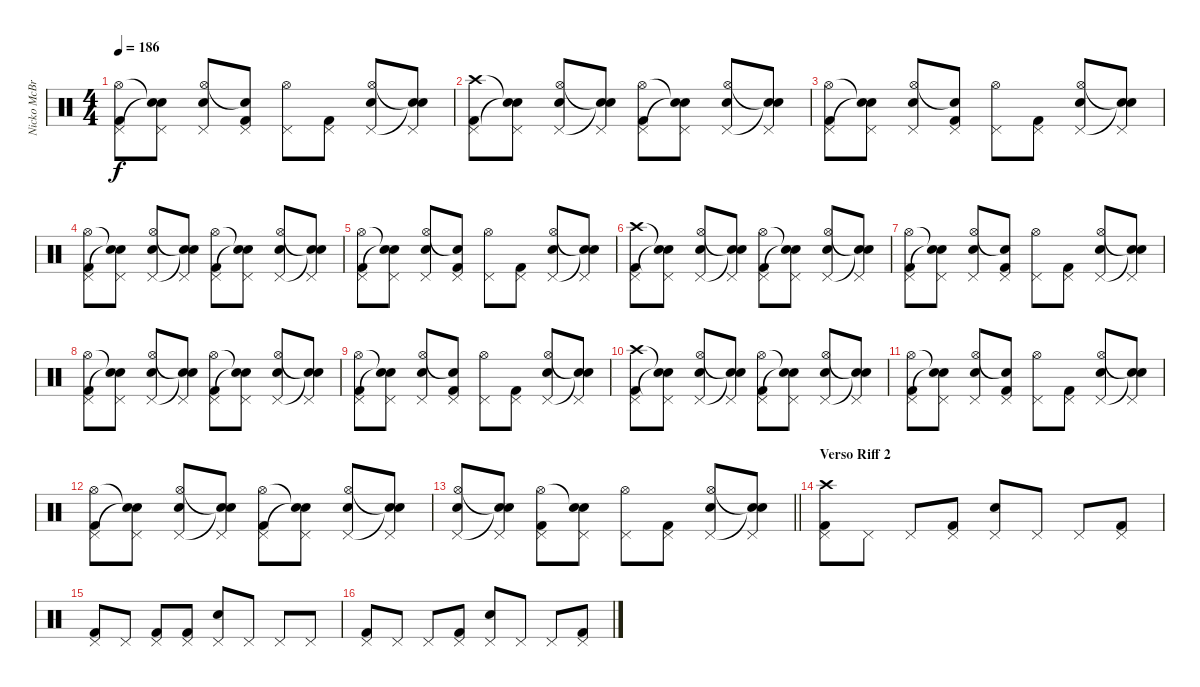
\track ("Nicko McBrain" "Nicko McBr") {instrument percussion}
\staff {score}
\articulation defaults
\ts (4 4)
\tempo 186
\clef neutral
\ks c
("Kick (hit) 2" "Pedal Hi-Hat (hit)" "Hi-Hat (open)").8{dy f} ("Pedal Hi-Hat (hit)" "Snare (hit)"{t} "Snare (hit)"{t}).8 ("Snare (hit) 2" "Pedal Hi-Hat (hit)" "Hi-Hat (open)").8 ("Kick (hit) 2" "Pedal Hi-Hat (hit)" "Snare (hit)"{t}).8 ("Pedal Hi-Hat (hit)" "Hi-Hat (open)").8 ("Kick (hit) 2" "Pedal Hi-Hat (hit)").8 ("Snare (hit) 2" "Pedal Hi-Hat (hit)" "Hi-Hat (open)").8 ("Pedal Hi-Hat (hit)" "Snare (hit)"{t} "Snare (hit)"{t}).8 |
("Kick (hit) 2" "Pedal Hi-Hat (hit)" "Crash high (hit)").8 ("Pedal Hi-Hat (hit)" "Snare (hit)"{t} "Snare (hit)"{t}).8 ("Snare (hit) 2" "Pedal Hi-Hat (hit)" "Hi-Hat (open)").8 ("Pedal Hi-Hat (hit)" "Snare (hit)"{t} "Snare (hit)"{t}).8 ("Kick (hit) 2" "Pedal Hi-Hat (hit)" "Hi-Hat (open)").8 ("Pedal Hi-Hat (hit)" "Snare (hit)"{t} "Snare (hit)"{t}).8 ("Snare (hit) 2" "Pedal Hi-Hat (hit)" "Hi-Hat (open)").8 ("Pedal Hi-Hat (hit)" "Snare (hit)"{t} "Snare (hit)"{t}).8 |
("Kick (hit) 2" "Pedal Hi-Hat (hit)" "Hi-Hat (open)").8 ("Pedal Hi-Hat (hit)" "Snare (hit)"{t} "Snare (hit)"{t}).8 ("Snare (hit) 2" "Pedal Hi-Hat (hit)" "Hi-Hat (open)").8 ("Kick (hit) 2" "Pedal Hi-Hat (hit)" "Snare (hit)"{t}).8 ("Pedal Hi-Hat (hit)" "Hi-Hat (open)").8 ("Kick (hit) 2" "Pedal Hi-Hat (hit)").8 ("Snare (hit) 2" "Pedal Hi-Hat (hit)" "Hi-Hat (open)").8 ("Pedal Hi-Hat (hit)" "Snare (hit)"{t} "Snare (hit)"{t}).8 |
("Kick (hit) 2" "Pedal Hi-Hat (hit)" "Hi-Hat (open)").8 ("Pedal Hi-Hat (hit)" "Snare (hit)"{t} "Snare (hit)"{t}).8 ("Snare (hit) 2" "Pedal Hi-Hat (hit)" "Hi-Hat (open)").8 ("Pedal Hi-Hat (hit)" "Snare (hit)"{t} "Snare (hit)"{t}).8 ("Kick (hit) 2" "Pedal Hi-Hat (hit)" "Hi-Hat (open)").8 ("Pedal Hi-Hat (hit)" "Snare (hit)"{t} "Snare (hit)"{t}).8 ("Snare (hit) 2" "Pedal Hi-Hat (hit)" "Hi-Hat (open)").8 ("Pedal Hi-Hat (hit)" "Snare (hit)"{t} "Snare (hit)"{t}).8 |
("Kick (hit) 2" "Pedal Hi-Hat (hit)" "Hi-Hat (open)").8 ("Pedal Hi-Hat (hit)" "Snare (hit)"{t} "Snare (hit)"{t}).8 ("Snare (hit) 2" "Pedal Hi-Hat (hit)" "Hi-Hat (open)").8 ("Kick (hit) 2" "Pedal Hi-Hat (hit)" "Snare (hit)"{t}).8 ("Pedal Hi-Hat (hit)" "Hi-Hat (open)").8 ("Kick (hit) 2" "Pedal Hi-Hat (hit)").8 ("Snare (hit) 2" "Pedal Hi-Hat (hit)" "Hi-Hat (open)").8 ("Pedal Hi-Hat (hit)" "Snare (hit)"{t} "Snare (hit)"{t}).8 |
("Kick (hit) 2" "Pedal Hi-Hat (hit)" "Crash high (hit)").8 ("Pedal Hi-Hat (hit)" "Snare (hit)"{t} "Snare (hit)"{t}).8 ("Snare (hit) 2" "Pedal Hi-Hat (hit)" "Hi-Hat (open)").8 ("Pedal Hi-Hat (hit)" "Snare (hit)"{t} "Snare (hit)"{t}).8 ("Kick (hit) 2" "Pedal Hi-Hat (hit)" "Hi-Hat (open)").8 ("Pedal Hi-Hat (hit)" "Snare (hit)"{t} "Snare (hit)"{t}).8 ("Snare (hit) 2" "Pedal Hi-Hat (hit)" "Hi-Hat (open)").8 ("Pedal Hi-Hat (hit)" "Snare (hit)"{t} "Snare (hit)"{t}).8 |
("Kick (hit) 2" "Pedal Hi-Hat (hit)" "Hi-Hat (open)").8 ("Pedal Hi-Hat (hit)" "Snare (hit)"{t} "Snare (hit)"{t}).8 ("Snare (hit) 2" "Pedal Hi-Hat (hit)" "Hi-Hat (open)").8 ("Kick (hit) 2" "Pedal Hi-Hat (hit)" "Snare (hit)"{t}).8 ("Pedal Hi-Hat (hit)" "Hi-Hat (open)").8 ("Kick (hit) 2" "Pedal Hi-Hat (hit)").8 ("Snare (hit) 2" "Pedal Hi-Hat (hit)" "Hi-Hat (open)").8 ("Pedal Hi-Hat (hit)" "Snare (hit)"{t} "Snare (hit)"{t}).8 |
("Kick (hit) 2" "Pedal Hi-Hat (hit)" "Hi-Hat (open)").8 ("Pedal Hi-Hat (hit)" "Snare (hit)"{t} "Snare (hit)"{t}).8 ("Snare (hit) 2" "Pedal Hi-Hat (hit)" "Hi-Hat (open)").8 ("Pedal Hi-Hat (hit)" "Snare (hit)"{t} "Snare (hit)"{t}).8 ("Kick (hit) 2" "Pedal Hi-Hat (hit)" "Hi-Hat (open)").8 ("Pedal Hi-Hat (hit)" "Snare (hit)"{t} "Snare (hit)"{t}).8 ("Snare (hit) 2" "Pedal Hi-Hat (hit)" "Hi-Hat (open)").8 ("Pedal Hi-Hat (hit)" "Snare (hit)"{t} "Snare (hit)"{t}).8 |
("Kick (hit) 2" "Pedal Hi-Hat (hit)" "Hi-Hat (open)").8 ("Pedal Hi-Hat (hit)" "Snare (hit)"{t} "Snare (hit)"{t}).8 ("Snare (hit) 2" "Pedal Hi-Hat (hit)" "Hi-Hat (open)").8 ("Kick (hit) 2" "Pedal Hi-Hat (hit)" "Snare (hit)"{t}).8 ("Pedal Hi-Hat (hit)" "Hi-Hat (open)").8 ("Kick (hit) 2" "Pedal Hi-Hat (hit)").8 ("Snare (hit) 2" "Pedal Hi-Hat (hit)" "Hi-Hat (open)").8 ("Pedal Hi-Hat (hit)" "Snare (hit)"{t} "Snare (hit)"{t}).8 |
("Kick (hit) 2" "Pedal Hi-Hat (hit)" "Crash high (hit)").8 ("Pedal Hi-Hat (hit)" "Snare (hit)"{t} "Snare (hit)"{t}).8 ("Snare (hit) 2" "Pedal Hi-Hat (hit)" "Hi-Hat (open)").8 ("Pedal Hi-Hat (hit)" "Snare (hit)"{t} "Snare (hit)"{t}).8 ("Kick (hit) 2" "Pedal Hi-Hat (hit)" "Hi-Hat (open)").8 ("Pedal Hi-Hat (hit)" "Snare (hit)"{t} "Snare (hit)"{t}).8 ("Snare (hit) 2" "Pedal Hi-Hat (hit)" "Hi-Hat (open)").8 ("Pedal Hi-Hat (hit)" "Snare (hit)"{t} "Snare (hit)"{t}).8 |
("Kick (hit) 2" "Pedal Hi-Hat (hit)" "Hi-Hat (open)").8 ("Pedal Hi-Hat (hit)" "Snare (hit)"{t} "Snare (hit)"{t}).8 ("Snare (hit) 2" "Pedal Hi-Hat (hit)" "Hi-Hat (open)").8 ("Kick (hit) 2" "Pedal Hi-Hat (hit)" "Snare (hit)"{t}).8 ("Pedal Hi-Hat (hit)" "Hi-Hat (open)").8 ("Kick (hit) 2" "Pedal Hi-Hat (hit)").8 ("Snare (hit) 2" "Pedal Hi-Hat (hit)" "Hi-Hat (open)").8 ("Pedal Hi-Hat (hit)" "Snare (hit)"{t} "Snare (hit)"{t}).8 |
("Kick (hit) 2" "Pedal Hi-Hat (hit)" "Hi-Hat (open)").8 ("Pedal Hi-Hat (hit)" "Snare (hit)"{t} "Snare (hit)"{t}).8 ("Snare (hit) 2" "Pedal Hi-Hat (hit)" "Hi-Hat (open)").8 ("Pedal Hi-Hat (hit)" "Snare (hit)"{t} "Snare (hit)"{t}).8 ("Kick (hit) 2" "Pedal Hi-Hat (hit)" "Hi-Hat (open)").8 ("Pedal Hi-Hat (hit)" "Snare (hit)"{t} "Snare (hit)"{t}).8 ("Snare (hit) 2" "Pedal Hi-Hat (hit)" "Hi-Hat (open)").8 ("Pedal Hi-Hat (hit)" "Snare (hit)"{t} "Snare (hit)"{t}).8 |
\barLineRight lightlight
("Snare (hit) 2" "Pedal Hi-Hat (hit)" "Hi-Hat (open)").8 ("Pedal Hi-Hat (hit)" "Snare (hit)"{t} "Snare (hit)"{t}).8 ("Kick (hit) 2" "Pedal Hi-Hat (hit)" "Hi-Hat (open)").8 ("Snare (hit) 2" "Pedal Hi-Hat (hit)" "Snare (hit)"{t}).8 ("Pedal Hi-Hat (hit)" "Hi-Hat (open)").8 ("Kick (hit) 2" "Pedal Hi-Hat (hit)").8 ("Snare (hit) 2" "Pedal Hi-Hat (hit)" "Hi-Hat (open)").8 ("Pedal Hi-Hat (hit)" "Snare (hit)"{t} "Snare (hit)"{t}).8 |
\section ("" "Verso Riff 2")
("Kick (hit) 2" "Pedal Hi-Hat (hit)" "Crash high (hit)").8 "Pedal Hi-Hat (hit)".8 "Pedal Hi-Hat (hit)".8 ("Kick (hit) 2" "Pedal Hi-Hat (hit)").8 ("Snare (hit) 2" "Pedal Hi-Hat (hit)").8 "Pedal Hi-Hat (hit)".8 "Pedal Hi-Hat (hit)".8 ("Kick (hit) 2" "Pedal Hi-Hat (hit)").8 |
("Kick (hit) 2" "Pedal Hi-Hat (hit)").8 "Pedal Hi-Hat (hit)".8 ("Kick (hit) 2" "Pedal Hi-Hat (hit)").8 ("Kick (hit) 2" "Pedal Hi-Hat (hit)").8 ("Snare (hit) 2" "Pedal Hi-Hat (hit)").8 "Pedal Hi-Hat (hit)".8 "Pedal Hi-Hat (hit)".8 "Pedal Hi-Hat (hit)".8 |
("Kick (hit) 2" "Pedal Hi-Hat (hit)").8 "Pedal Hi-Hat (hit)".8 "Pedal Hi-Hat (hit)".8 ("Kick (hit) 2" "Pedal Hi-Hat (hit)").8 ("Snare (hit) 2" "Pedal Hi-Hat (hit)").8 "Pedal Hi-Hat (hit)".8 "Pedal Hi-Hat (hit)".8 ("Kick (hit) 2" "Pedal Hi-Hat (hit)").8
